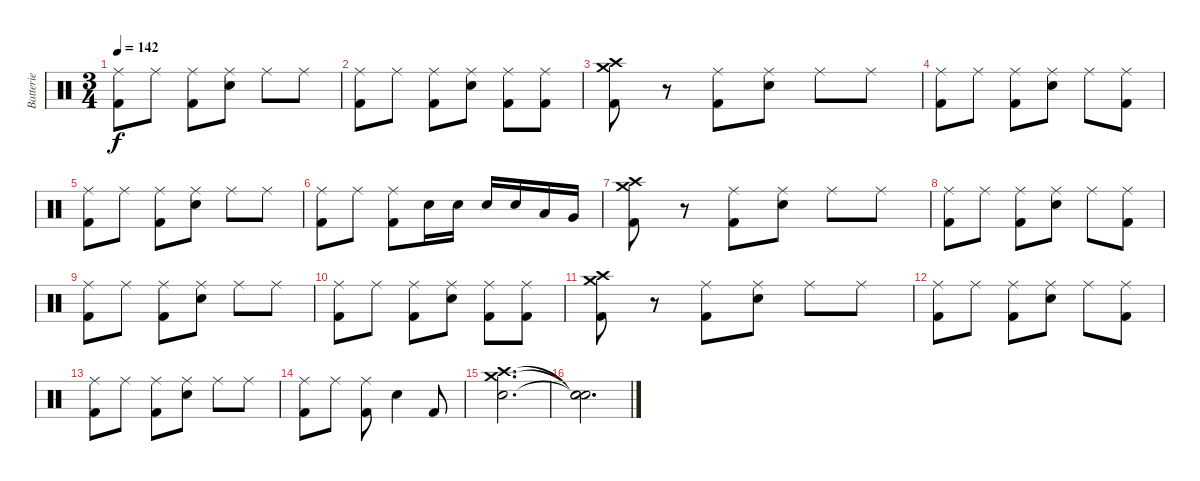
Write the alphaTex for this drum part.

\track ("Batterie" "Batterie") {instrument percussion}
\staff {score}
\articulation defaults
\ts (3 4)
\tempo 142
\clef neutral
\ks c
("Ride (middle)" "Kick (hit) 2").8{dy f} "Ride (middle)".8 ("Ride (middle)" "Kick (hit) 2").8 ("Ride (middle)" "Electric Snare (hit)").8 "Ride (middle)".8 "Ride (middle)".8 |
("Ride (middle)" "Kick (hit) 2").8 "Ride (middle)".8 ("Ride (middle)" "Kick (hit) 2").8 ("Ride (middle)" "Electric Snare (hit)").8 ("Ride (middle)" "Kick (hit) 2").8 ("Ride (middle)" "Kick (hit) 2").8 |
("Crash medium (hit)" "Crash high (hit)" "Kick (hit) 2").8 r.8 ("Ride (middle)" "Kick (hit) 2").8 ("Ride (middle)" "Electric Snare (hit)").8 "Ride (middle)".8 "Ride (middle)".8 |
("Ride (middle)" "Kick (hit) 2").8 "Ride (middle)".8 ("Ride (middle)" "Kick (hit) 2").8 ("Ride (middle)" "Electric Snare (hit)").8 "Ride (middle)".8 ("Ride (middle)" "Kick (hit) 2").8 |
("Ride (middle)" "Kick (hit) 2").8 "Ride (middle)".8 ("Ride (middle)" "Kick (hit) 2").8 ("Ride (middle)" "Electric Snare (hit)").8 "Ride (middle)".8 "Ride (middle)".8 |
("Ride (middle)" "Kick (hit) 2").8 "Ride (middle)".8 ("Ride (middle)" "Kick (hit) 2").8 "Electric Snare (hit)".16 "Electric Snare (hit)".16 "Electric Snare (hit)".16 "Electric Snare (hit)".16 "Low Tom (hit)".16 "Very Low Tom (hit)".16 |
("Crash medium (hit)" "Crash high (hit)" "Kick (hit) 2").8 r.8 ("Ride (middle)" "Kick (hit) 2").8 ("Ride (middle)" "Electric Snare (hit)").8 "Ride (middle)".8 "Ride (middle)".8 |
("Ride (middle)" "Kick (hit) 2").8 "Ride (middle)".8 ("Ride (middle)" "Kick (hit) 2").8 ("Ride (middle)" "Electric Snare (hit)").8 "Ride (middle)".8 ("Ride (middle)" "Kick (hit) 2").8 |
("Ride (middle)" "Kick (hit) 2").8 "Ride (middle)".8 ("Ride (middle)" "Kick (hit) 2").8 ("Ride (middle)" "Electric Snare (hit)").8 "Ride (middle)".8 "Ride (middle)".8 |
("Ride (middle)" "Kick (hit) 2").8 "Ride (middle)".8 ("Ride (middle)" "Kick (hit) 2").8 ("Ride (middle)" "Electric Snare (hit)").8 ("Ride (middle)" "Kick (hit) 2").8 ("Ride (middle)" "Kick (hit) 2").8 |
("Crash medium (hit)" "Crash high (hit)" "Kick (hit) 2").8 r.8 ("Ride (middle)" "Kick (hit) 2").8 ("Ride (middle)" "Electric Snare (hit)").8 "Ride (middle)".8 "Ride (middle)".8 |
("Ride (middle)" "Kick (hit) 2").8 "Ride (middle)".8 ("Ride (middle)" "Kick (hit) 2").8 ("Ride (middle)" "Electric Snare (hit)").8 "Ride (middle)".8 ("Ride (middle)" "Kick (hit) 2").8 |
("Ride (middle)" "Kick (hit) 2").8 "Ride (middle)".8 ("Ride (middle)" "Kick (hit) 2").8 ("Ride (middle)" "Electric Snare (hit)").8 "Ride (middle)".8 "Ride (middle)".8 |
("Ride (middle)" "Kick (hit) 2").8 "Ride (middle)".8 ("Ride (middle)" "Kick (hit) 2").8 "Electric Snare (hit)".4 "Kick (hit) 2".8 |
("Crash medium (hit)" "Crash high (hit)" "Electric Snare (hit)").2{d} |
("Snare (hit)"{t} "Snare (hit)"{t} "Snare (hit)"{t}).2{d}
